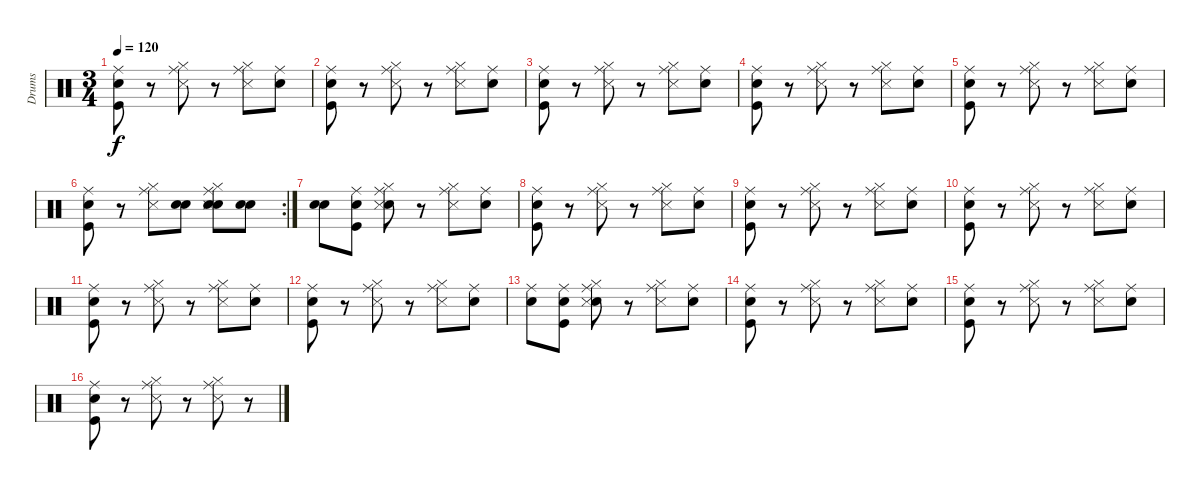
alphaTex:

\track ("Drums " "Drums ") {instrument percussion}
\staff {score}
\articulation defaults
\ts (3 4)
\tempo 120
\clef neutral
\ks c
("Snare (hit)" "Kick (hit)" "Ride (middle)").8{dy f} r.8 ("Hi-Hat (closed)" "Snare (side stick) 3" "Ride (middle)").8 r.8 ("Hi-Hat (closed)" "Snare (side stick) 3" "Ride (middle)").8 ("Snare (hit)" "Ride (middle)").8 |
("Snare (hit)" "Kick (hit)" "Ride (middle)").8 r.8 ("Hi-Hat (closed)" "Snare (side stick) 3" "Ride (middle)").8 r.8 ("Hi-Hat (closed)" "Snare (side stick) 3" "Ride (middle)").8 ("Snare (hit)" "Ride (middle)").8 |
("Snare (hit)" "Kick (hit)" "Ride (middle)").8 r.8 ("Hi-Hat (closed)" "Snare (side stick) 3" "Ride (middle)").8 r.8 ("Hi-Hat (closed)" "Snare (side stick) 3" "Ride (middle)").8 ("Snare (hit)" "Ride (middle)").8 |
("Snare (hit)" "Kick (hit)" "Ride (middle)").8 r.8 ("Hi-Hat (closed)" "Snare (side stick) 3" "Ride (middle)").8 r.8 ("Hi-Hat (closed)" "Snare (side stick) 3" "Ride (middle)").8 ("Snare (hit)" "Ride (middle)").8 |
("Snare (hit)" "Kick (hit)" "Ride (middle)").8 r.8 ("Hi-Hat (closed)" "Snare (side stick) 3" "Ride (middle)").8 r.8 ("Hi-Hat (closed)" "Snare (side stick) 3" "Ride (middle)").8 ("Snare (hit)" "Ride (middle)").8 |
\rc 2
("Snare (hit)" "Kick (hit)" "Ride (middle)").8 r.8 ("Hi-Hat (closed)" "Snare (side stick) 3" "Ride (middle)").8 ("Snare (hit)" "Snare (hit) 2").8 ("Snare (hit)" "Snare (hit) 2" "Hi-Hat (closed)" "Snare (side stick) 3" "Ride (middle)").8 ("Snare (hit)" "Snare (hit) 2").8 |
("Snare (hit)" "Snare (hit) 2").8 ("Snare (hit)" "Kick (hit)" "Ride (middle)").8 ("Snare (hit)" "Hi-Hat (closed)" "Snare (side stick) 3" "Ride (middle)").8 r.8 ("Hi-Hat (closed)" "Snare (side stick) 3" "Ride (middle)").8 ("Snare (hit)" "Ride (middle)").8 |
("Snare (hit)" "Kick (hit)" "Ride (middle)").8 r.8 ("Hi-Hat (closed)" "Snare (side stick) 3" "Ride (middle)").8 r.8 ("Hi-Hat (closed)" "Snare (side stick) 3" "Ride (middle)").8 ("Snare (hit)" "Ride (middle)").8 |
("Snare (hit)" "Kick (hit)" "Ride (middle)").8 r.8 ("Hi-Hat (closed)" "Snare (side stick) 3" "Ride (middle)").8 r.8 ("Hi-Hat (closed)" "Snare (side stick) 3" "Ride (middle)").8 ("Snare (hit)" "Ride (middle)").8 |
("Snare (hit)" "Kick (hit)" "Ride (middle)").8 r.8 ("Hi-Hat (closed)" "Snare (side stick) 3" "Ride (middle)").8 r.8 ("Hi-Hat (closed)" "Snare (side stick) 3" "Ride (middle)").8 ("Snare (hit)" "Ride (middle)").8 |
("Snare (hit)" "Kick (hit)" "Ride (middle)").8 r.8 ("Hi-Hat (closed)" "Snare (side stick) 3" "Ride (middle)").8 r.8 ("Hi-Hat (closed)" "Snare (side stick) 3" "Ride (middle)").8 ("Snare (hit)" "Ride (middle)").8 |
("Snare (hit)" "Kick (hit)" "Ride (middle)").8 r.8 ("Hi-Hat (closed)" "Snare (side stick) 3" "Ride (middle)").8 r.8 ("Hi-Hat (closed)" "Snare (side stick) 3" "Ride (middle)").8 ("Snare (hit)" "Ride (middle)").8 |
("Snare (hit)" "Ride (middle)").8 ("Snare (hit)" "Kick (hit)" "Ride (middle)").8 ("Snare (hit)" "Hi-Hat (closed)" "Snare (side stick) 3" "Ride (middle)").8 r.8 ("Hi-Hat (closed)" "Snare (side stick) 3" "Ride (middle)").8 ("Snare (hit)" "Ride (middle)").8 |
("Snare (hit)" "Kick (hit)" "Ride (middle)").8 r.8 ("Hi-Hat (closed)" "Snare (side stick) 3" "Ride (middle)").8 r.8 ("Hi-Hat (closed)" "Snare (side stick) 3" "Ride (middle)").8 ("Snare (hit)" "Ride (middle)").8 |
("Snare (hit)" "Kick (hit)" "Ride (middle)").8 r.8 ("Hi-Hat (closed)" "Snare (side stick) 3" "Ride (middle)").8 r.8 ("Hi-Hat (closed)" "Snare (side stick) 3" "Ride (middle)").8 ("Snare (hit)" "Ride (middle)").8 |
("Snare (hit)" "Kick (hit)" "Ride (middle)").8 r.8 ("Hi-Hat (closed)" "Snare (side stick) 3" "Ride (middle)").8 r.8 ("Hi-Hat (closed)" "Snare (side stick) 3" "Ride (middle)").8 r.8
